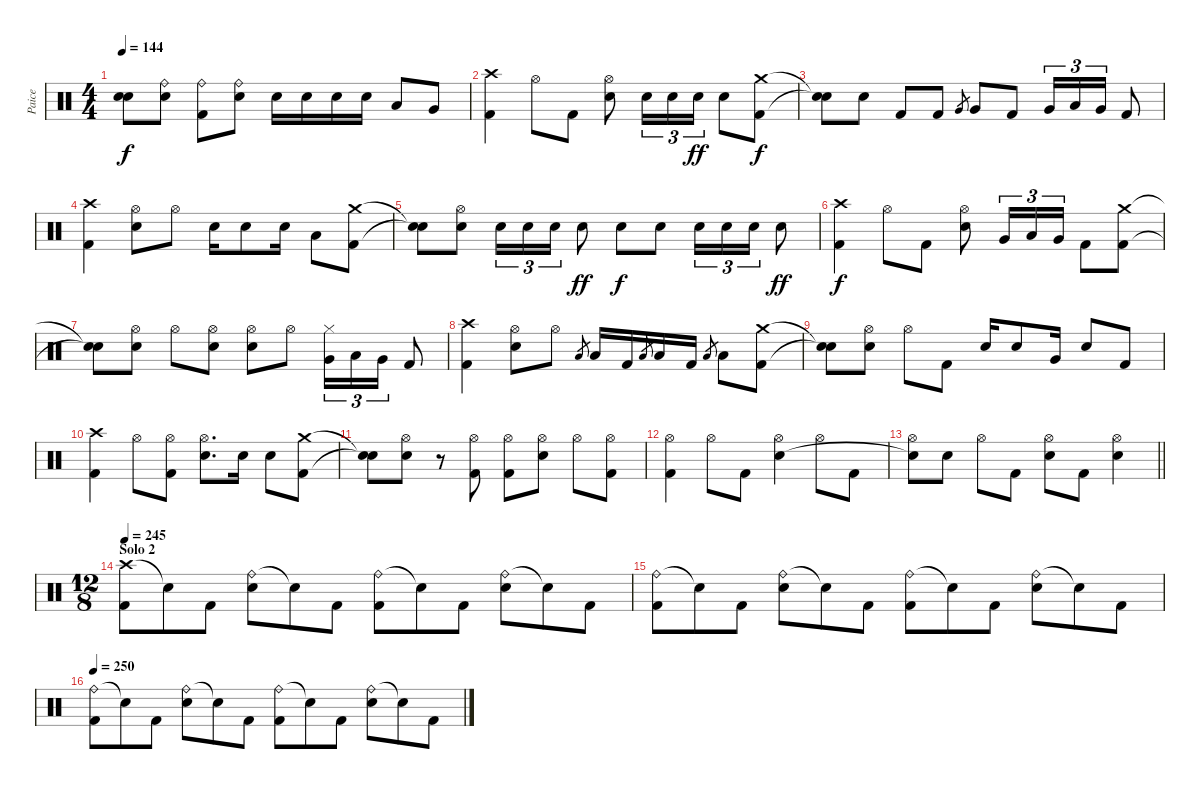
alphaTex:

\track ("Paice" "Paice") {instrument percussion}
\staff {score}
\articulation defaults
\ts (4 4)
\tempo 144
\clef neutral
\ks c
("Snare (hit)"{t} "Snare (hit)"{t}).8{dy f} ("Ride (bell)" "Electric Snare (hit)").8 ("Ride (bell)" "Kick (hit) 2").8 ("Ride (bell)" "Electric Snare (hit)").8 "Electric Snare (hit)".16 "Electric Snare (hit)".16 "Electric Snare (hit)".16 "Electric Snare (hit)".16 "Low Tom (hit)".8 "Very Low Tom (hit)".8 |
("Crash high (hit)" "Kick (hit) 2").4 "Hi-Hat (open)".8 "Kick (hit) 2".8 ("Hi-Hat (open)" "Electric Snare (hit)").8 "Electric Snare (hit)".16{tu (3 2)} "Electric Snare (hit)".16{tu (3 2)} "Electric Snare (hit)".16{tu (3 2) dy ff} "Electric Snare (hit)".8 ("Crash medium (hit)" "Kick (hit) 2").8{dy f} |
("Snare (hit)"{t} "Snare (hit)"{t}).8 "Electric Snare (hit)".8 "Kick (hit) 2".8 "Kick (hit) 2".8 "Very Low Tom (hit)".8{gr} "Very Low Tom (hit)".8 "Kick (hit) 2".8 "Very Low Tom (hit)".16{tu (3 2)} "Low Tom (hit)".16{tu (3 2)} "Very Low Tom (hit)".16{tu (3 2)} "Kick (hit) 2".8 |
("Crash high (hit)" "Kick (hit) 2").4 ("Hi-Hat (open)" "Electric Snare (hit)").8 "Hi-Hat (open)".8 "Electric Snare (hit)".16 "Electric Snare (hit)".8 "Electric Snare (hit)".16 "Low Tom (hit)".8 ("Crash medium (hit)" "Kick (hit) 2").8 |
("Snare (hit)"{t} "Snare (hit)"{t}).8 ("Hi-Hat (open)" "Electric Snare (hit)").8 "Electric Snare (hit)".16{tu (3 2)} "Electric Snare (hit)".16{tu (3 2)} "Electric Snare (hit)".16{tu (3 2)} "Electric Snare (hit)".8{dy ff} "Electric Snare (hit)".8{dy f} "Electric Snare (hit)".8 "Electric Snare (hit)".16{tu (3 2)} "Electric Snare (hit)".16{tu (3 2)} "Electric Snare (hit)".16{tu (3 2)} "Electric Snare (hit)".8{dy ff} |
("Crash high (hit)" "Kick (hit) 2").4{dy f} "Hi-Hat (open)".8 "Kick (hit) 2".8 ("Hi-Hat (open)" "Electric Snare (hit)").8 "Very Low Tom (hit)".16{tu (3 2)} "Low Tom (hit)".16{tu (3 2)} "Very Low Tom (hit)".16{tu (3 2)} "Kick (hit) 2".8 ("Crash medium (hit)" "Kick (hit) 2").8 |
("Snare (hit)"{t} "Snare (hit)"{t}).8 ("Hi-Hat (open)" "Electric Snare (hit)").8 "Hi-Hat (open)".8 ("Hi-Hat (open)" "Electric Snare (hit)").8 ("Hi-Hat (open)" "Electric Snare (hit)").8 "Hi-Hat (open)".8 ("Hi-Hat (closed)" "Very Low Tom (hit)").16{tu (3 2)} "Low Tom (hit)".16{tu (3 2)} "Very Low Tom (hit)".16{tu (3 2)} "Kick (hit) 2".8 |
("Crash high (hit)" "Kick (hit) 2").4 ("Hi-Hat (open)" "Electric Snare (hit)").8 "Hi-Hat (open)".8 "Low Floor Tom (hit)".8{gr} "Low Floor Tom (hit)".16 "Kick (hit) 2".16 "Low Floor Tom (hit)".8{gr} "Low Floor Tom (hit)".16 "Kick (hit) 2".16 "Low Floor Tom (hit)".8{gr} "Low Floor Tom (hit)".8 ("Crash medium (hit)" "Kick (hit) 2").8 |
("Snare (hit)"{t} "Snare (hit)"{t}).8 ("Hi-Hat (open)" "Electric Snare (hit)").8 "Hi-Hat (open)".8 "Kick (hit) 2".8 "Electric Snare (hit)".16 "Electric Snare (hit)".8 "Very Low Tom (hit)".16 "Electric Snare (hit)".8 "Kick (hit) 2".8 |
("Crash high (hit)" "Kick (hit) 2").4 "Hi-Hat (open)".8 ("Hi-Hat (open)" "Kick (hit) 2").8 ("Hi-Hat (open)" "Electric Snare (hit)").8{d} "Electric Snare (hit)".16 "Electric Snare (hit)".8 ("Crash medium (hit)" "Kick (hit) 2").8 |
("Snare (hit)"{t} "Snare (hit)"{t}).8 ("Hi-Hat (open)" "Electric Snare (hit)").8 r.8 ("Hi-Hat (open)" "Kick (hit) 2").8 ("Hi-Hat (open)" "Kick (hit) 2").8 ("Hi-Hat (open)" "Electric Snare (hit)").8 "Hi-Hat (open)".8 ("Hi-Hat (open)" "Kick (hit) 2").8 |
("Hi-Hat (open)" "Kick (hit) 2").4 "Hi-Hat (open)".8 "Kick (hit) 2".8 ("Hi-Hat (open)" "Electric Snare (hit)").4 "Hi-Hat (open)".8 "Kick (hit) 2".8 |
\barLineRight lightlight
("Hi-Hat (open)" "Snare (hit)"{t}).8 "Electric Snare (hit)".8 "Hi-Hat (open)".8 "Kick (hit) 2".8 ("Hi-Hat (open)" "Electric Snare (hit)").8 "Kick (hit) 2".8 ("Hi-Hat (open)" "Electric Snare (hit)").4 |
\ts (12 8)
\section ("" "Solo 2")
\tempo 245
("Crash high (hit)" "Kick (hit) 2").8 "Snare (hit)"{t}.8 "Kick (hit) 2".8 ("Ride (bell)" "Electric Snare (hit)").8 "Snare (hit)"{t}.8 "Kick (hit) 2".8 ("Ride (bell)" "Kick (hit) 2").8 "Snare (hit)"{t}.8 "Kick (hit) 2".8 ("Ride (bell)" "Electric Snare (hit)").8 "Snare (hit)"{t}.8 "Kick (hit) 2".8 |
("Ride (bell)" "Kick (hit) 2").8 "Snare (hit)"{t}.8 "Kick (hit) 2".8 ("Ride (bell)" "Electric Snare (hit)").8 "Snare (hit)"{t}.8 "Kick (hit) 2".8 ("Ride (bell)" "Kick (hit) 2").8 "Snare (hit)"{t}.8 "Kick (hit) 2".8 ("Ride (bell)" "Electric Snare (hit)").8 "Snare (hit)"{t}.8 "Kick (hit) 2".8 |
\tempo 250
("Ride (bell)" "Kick (hit) 2").8 "Snare (hit)"{t}.8 "Kick (hit) 2".8 ("Ride (bell)" "Electric Snare (hit)").8 "Snare (hit)"{t}.8 "Kick (hit) 2".8 ("Ride (bell)" "Kick (hit) 2").8 "Snare (hit)"{t}.8 "Kick (hit) 2".8 ("Ride (bell)" "Electric Snare (hit)").8 "Snare (hit)"{t}.8 "Kick (hit) 2".8
